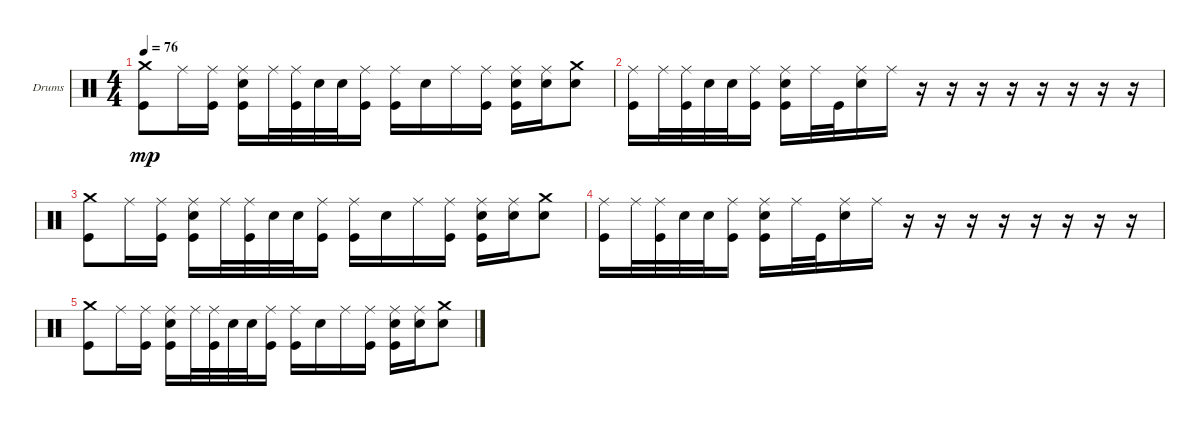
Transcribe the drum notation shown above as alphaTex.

\bracketExtendMode groupsimilarinstruments
\firstSystemTrackNameOrientation horizontal
\otherSystemsTrackNameOrientation horizontal
\track ("Drumkit" "Drums") {instrument percussion}
\staff {score}
\articulation defaults
\ts (4 4)
\tempo 76
\clef neutral
\ks c
("Kick (hit)" "Crash medium (hit)").8{dy mp} "Ride (middle)".16 ("Kick (hit)" "Ride (middle)").16 ("Snare (hit) 2" "Kick (hit)" "Ride (middle)").16 "Ride (middle)".32 ("Kick (hit)" "Ride (middle)").32 "Snare (hit) 2".32 "Snare (hit) 2".32 ("Kick (hit)" "Ride (middle)").16 ("Kick (hit)" "Ride (middle)").16 "Snare (hit) 2".16 "Ride (middle)".16 ("Kick (hit)" "Ride (middle)").16 ("Kick (hit)" "Snare (hit) 2" "Ride (middle)").16 ("Snare (hit) 2" "Ride (middle)").16 ("Snare (hit) 2" "Crash medium (hit)").8 |
("Kick (hit)" "Ride (middle)").16 "Ride (middle)".32 ("Kick (hit)" "Ride (middle)").32 "Snare (hit) 2".32 "Snare (hit) 2".32 ("Kick (hit)" "Ride (middle)").16 ("Ride (middle)" "Kick (hit)" "Snare (hit) 2").16 "Ride (middle)".32 "Kick (hit)".32 ("Ride (middle)" "Snare (hit) 2").16 "Ride (middle)".16 r.16 r.16 r.16 r.16 r.16 r.16 r.16 r.16 |
("Kick (hit)" "Crash medium (hit)").8 "Ride (middle)".16 ("Kick (hit)" "Ride (middle)").16 ("Snare (hit) 2" "Kick (hit)" "Ride (middle)").16 "Ride (middle)".32 ("Kick (hit)" "Ride (middle)").32 "Snare (hit) 2".32 "Snare (hit) 2".32 ("Kick (hit)" "Ride (middle)").16 ("Kick (hit)" "Ride (middle)").16 "Snare (hit) 2".16 "Ride (middle)".16 ("Kick (hit)" "Ride (middle)").16 ("Kick (hit)" "Snare (hit) 2" "Ride (middle)").16 ("Snare (hit) 2" "Ride (middle)").16 ("Snare (hit) 2" "Crash medium (hit)").8 |
("Ride (middle)" "Kick (hit)").16 "Ride (middle)".32 ("Kick (hit)" "Ride (middle)").32 "Snare (hit) 2".32 "Snare (hit) 2".32 ("Kick (hit)" "Ride (middle)").16 ("Ride (middle)" "Kick (hit)" "Snare (hit) 2").16 "Ride (middle)".32 "Kick (hit)".32 ("Ride (middle)" "Snare (hit) 2").16 "Ride (middle)".16 r.16 r.16 r.16 r.16 r.16 r.16 r.16 r.16 |
("Crash medium (hit)" "Kick (hit)").8 "Ride (middle)".16 ("Kick (hit)" "Ride (middle)").16 ("Snare (hit) 2" "Kick (hit)" "Ride (middle)").16 "Ride (middle)".32 ("Kick (hit)" "Ride (middle)").32 "Snare (hit) 2".32 "Snare (hit) 2".32 ("Kick (hit)" "Ride (middle)").16 ("Kick (hit)" "Ride (middle)").16 "Snare (hit) 2".16 "Ride (middle)".16 ("Kick (hit)" "Ride (middle)").16 ("Kick (hit)" "Snare (hit) 2" "Ride (middle)").16 ("Snare (hit) 2" "Ride (middle)").16 ("Snare (hit) 2" "Crash medium (hit)").8
